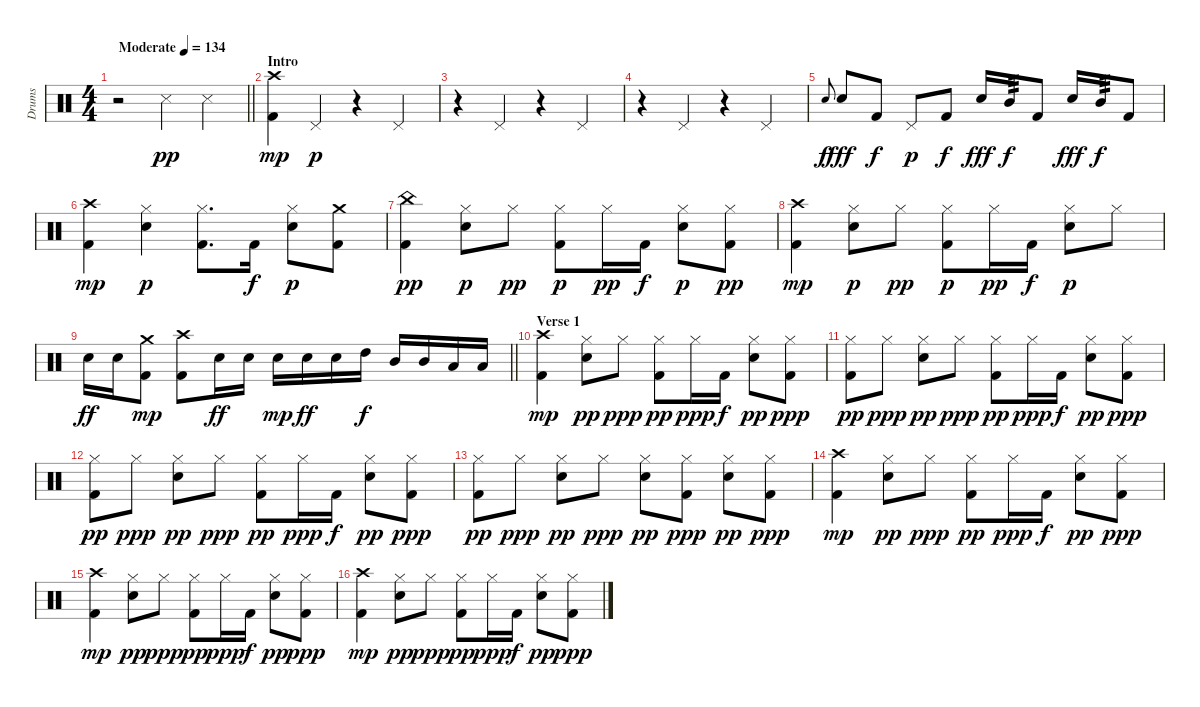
\track ("Drums" "Drums") {instrument percussion}
\staff {score}
\articulation defaults
\ts (4 4)
\tempo (134 "Moderate")
\clef neutral
\barLineRight lightlight
\ks aminor
r.2{dy pp} "Snare (side stick) 3".4 "Snare (side stick) 3".4 |
\section ("" "Intro")
("Crash high (hit)" "Kick (hit) 2").4{dy mp} "Pedal Hi-Hat (hit)".4{dy p} r.4 "Pedal Hi-Hat (hit)".4 |
r.4 "Pedal Hi-Hat (hit)".4 r.4 "Pedal Hi-Hat (hit)".4 |
r.4 "Pedal Hi-Hat (hit)".4 r.4 "Pedal Hi-Hat (hit)".4 |
"Electric Snare (hit)".8{gr onbeat dy f} "Electric Snare (hit)".8{dy fff} "Kick (hit) 2".8{dy f} "Pedal Hi-Hat (hit)".8{dy p} "Kick (hit) 2".8{dy f} "Electric Snare (hit)".16{dy fff} "Mid Tom (hit)".16{tp 3 dy f} "Kick (hit) 2".8 "Electric Snare (hit)".16{dy fff} "Mid Tom (hit)".16{tp 3 dy f} "Kick (hit) 2".8 |
("Kick (hit) 2" "Crash high (hit)").4{dy mp beam Down} ("Electric Snare (hit)" "Hi-Hat (closed)").4{dy p beam Down} ("Kick (hit) 2" "Hi-Hat (closed)").8{d} "Kick (hit) 2".16{dy f} ("Electric Snare (hit)" "Hi-Hat (closed)").8{dy p} ("Kick (hit) 2" "Crash medium (hit)").8 |
("Kick (hit) 2" "China (hit)").4{dy pp} ("Electric Snare (hit)" "Hi-Hat (closed)").8{dy p} "Hi-Hat (closed)".8{dy pp} ("Kick (hit) 2" "Hi-Hat (closed)").8{dy p} "Hi-Hat (closed)".16{dy pp} "Kick (hit) 2".16{dy f} ("Electric Snare (hit)" "Hi-Hat (closed)").8{dy p} ("Kick (hit) 2" "Hi-Hat (closed)").8{dy pp} |
("Kick (hit) 2" "Crash high (hit)").4{dy mp} ("Electric Snare (hit)" "Hi-Hat (closed)").8{dy p} "Hi-Hat (closed)".8{dy pp} ("Kick (hit) 2" "Hi-Hat (closed)").8{dy p} "Hi-Hat (closed)".16{dy pp} "Kick (hit) 2".16{dy f} ("Electric Snare (hit)" "Hi-Hat (closed)").8{dy p} "Hi-Hat (closed)".8 |
\barLineRight lightlight "Electric Snare (hit)".16{dy ff} "Electric Snare (hit)".16
("Kick (hit) 2" "Crash medium (hit)").8{dy mp} ("Kick (hit) 2" "Crash high (hit)").8 "Electric Snare (hit)".16{dy ff} "Electric Snare (hit)".16 "Electric Snare (hit)".16{dy mp} "Electric Snare (hit)".16{dy ff} "Electric Snare (hit)".16 "High Tom (hit)".16{dy f} "Mid Tom (hit)".16 "Mid Tom (hit)".16 "Low Tom (hit)".16 "Low Tom (hit)".16 |
\section ("" "Verse 1")
("Kick (hit) 2" "Crash high (hit)").4{dy mp} ("Electric Snare (hit)" "Hi-Hat (closed)").8{dy pp} "Hi-Hat (closed)".8{dy ppp} ("Kick (hit) 2" "Hi-Hat (closed)").8{dy pp} "Hi-Hat (closed)".16{dy ppp} "Kick (hit) 2".16{dy f} ("Electric Snare (hit)" "Hi-Hat (closed)").8{dy pp} ("Kick (hit) 2" "Hi-Hat (closed)").8{dy ppp} |
("Kick (hit) 2" "Hi-Hat (closed)").8{dy pp} "Hi-Hat (closed)".8{dy ppp} ("Electric Snare (hit)" "Hi-Hat (closed)").8{dy pp} "Hi-Hat (closed)".8{dy ppp} ("Kick (hit) 2" "Hi-Hat (closed)").8{dy pp} "Hi-Hat (closed)".16{dy ppp} "Kick (hit) 2".16{dy f} ("Electric Snare (hit)" "Hi-Hat (closed)").8{dy pp} ("Kick (hit) 2" "Hi-Hat (closed)").8{dy ppp} |
("Kick (hit) 2" "Hi-Hat (closed)").8{dy pp} "Hi-Hat (closed)".8{dy ppp} ("Electric Snare (hit)" "Hi-Hat (closed)").8{dy pp} "Hi-Hat (closed)".8{dy ppp} ("Kick (hit) 2" "Hi-Hat (closed)").8{dy pp} "Hi-Hat (closed)".16{dy ppp} "Kick (hit) 2".16{dy f} ("Electric Snare (hit)" "Hi-Hat (closed)").8{dy pp} ("Kick (hit) 2" "Hi-Hat (closed)").8{dy ppp} |
("Kick (hit) 2" "Hi-Hat (closed)").8{dy pp} "Hi-Hat (closed)".8{dy ppp} ("Electric Snare (hit)" "Hi-Hat (closed)").8{dy pp} "Hi-Hat (closed)".8{dy ppp} ("Electric Snare (hit)" "Hi-Hat (closed)").8{dy pp} ("Kick (hit) 2" "Hi-Hat (closed)").8{dy ppp} ("Electric Snare (hit)" "Hi-Hat (closed)").8{dy pp} ("Kick (hit) 2" "Hi-Hat (closed)").8{dy ppp} |
("Kick (hit) 2" "Crash high (hit)").4{dy mp} ("Electric Snare (hit)" "Hi-Hat (closed)").8{dy pp} "Hi-Hat (closed)".8{dy ppp} ("Kick (hit) 2" "Hi-Hat (closed)").8{dy pp} "Hi-Hat (closed)".16{dy ppp} "Kick (hit) 2".16{dy f} ("Electric Snare (hit)" "Hi-Hat (closed)").8{dy pp} ("Kick (hit) 2" "Hi-Hat (closed)").8{dy ppp} |
("Kick (hit) 2" "Crash high (hit)").4{dy mp} ("Electric Snare (hit)" "Hi-Hat (closed)").8{dy pp} "Hi-Hat (closed)".8{dy ppp} ("Kick (hit) 2" "Hi-Hat (closed)").8{dy pp} "Hi-Hat (closed)".16{dy ppp} "Kick (hit) 2".16{dy f} ("Electric Snare (hit)" "Hi-Hat (closed)").8{dy pp} ("Kick (hit) 2" "Hi-Hat (closed)").8{dy ppp} |
("Kick (hit) 2" "Crash high (hit)").4{dy mp} ("Electric Snare (hit)" "Hi-Hat (closed)").8{dy pp} "Hi-Hat (closed)".8{dy ppp} ("Kick (hit) 2" "Hi-Hat (closed)").8{dy pp} "Hi-Hat (closed)".16{dy ppp} "Kick (hit) 2".16{dy f} ("Electric Snare (hit)" "Hi-Hat (closed)").8{dy pp} ("Kick (hit) 2" "Hi-Hat (closed)").8{dy ppp}
